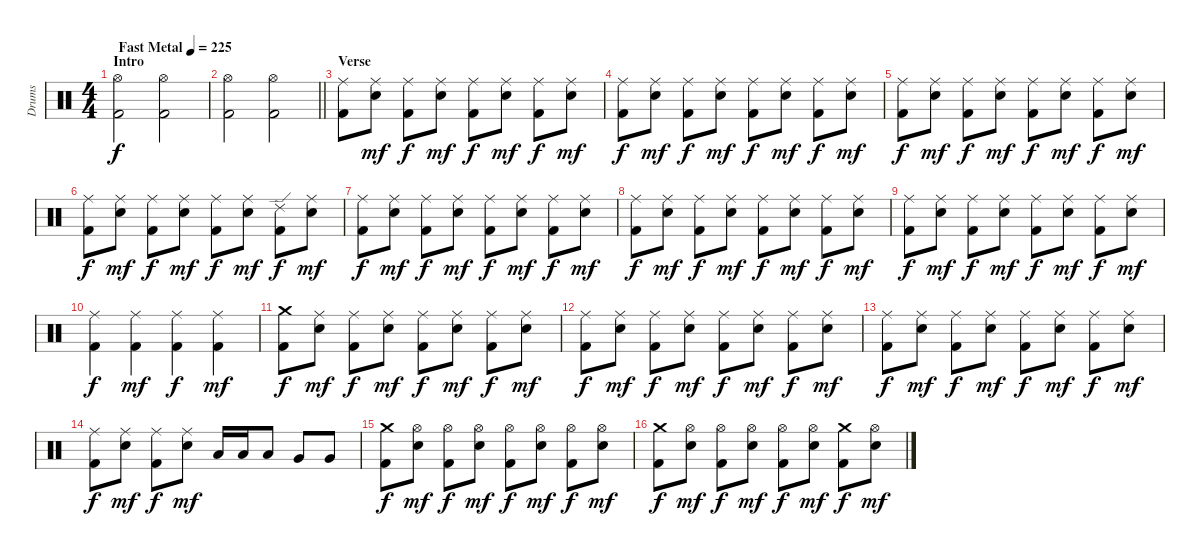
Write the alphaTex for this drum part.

\track ("Drums" "Drums") {instrument percussion}
\staff {score}
\articulation defaults
\ts (4 4)
\section ("" "Intro")
\tempo (225 "Fast Metal")
\clef neutral
\ks c
("Hi-Hat (open)" "Kick (hit) 2").2{dy f} ("Hi-Hat (open)" "Kick (hit) 2").2 |
\barLineRight lightlight
("Hi-Hat (open)" "Kick (hit) 2").2 ("Hi-Hat (open)" "Kick (hit) 2").2 |
\section ("" "Verse")
("Ride (middle)" "Kick (hit) 2").8 ("Ride (middle)" "Snare (hit) 2").8{dy mf} ("Ride (middle)" "Kick (hit) 2").8{dy f} ("Ride (middle)" "Snare (hit) 2").8{dy mf} ("Ride (middle)" "Kick (hit) 2").8{dy f} ("Ride (middle)" "Snare (hit) 2").8{dy mf} ("Ride (middle)" "Kick (hit) 2").8{dy f} ("Ride (middle)" "Snare (hit) 2").8{dy mf} |
("Ride (middle)" "Kick (hit) 2").8{dy f} ("Ride (middle)" "Snare (hit) 2").8{dy mf} ("Ride (middle)" "Kick (hit) 2").8{dy f} ("Ride (middle)" "Snare (hit) 2").8{dy mf} ("Ride (middle)" "Kick (hit) 2").8{dy f} ("Ride (middle)" "Snare (hit) 2").8{dy mf} ("Ride (middle)" "Kick (hit) 2").8{dy f} ("Ride (middle)" "Snare (hit) 2").8{dy mf} |
("Ride (middle)" "Kick (hit) 2").8{dy f} ("Ride (middle)" "Snare (hit) 2").8{dy mf} ("Ride (middle)" "Kick (hit) 2").8{dy f} ("Ride (middle)" "Snare (hit) 2").8{dy mf} ("Ride (middle)" "Kick (hit) 2").8{dy f} ("Ride (middle)" "Snare (hit) 2").8{dy mf} ("Ride (middle)" "Kick (hit) 2").8{dy f} ("Ride (middle)" "Snare (hit) 2").8{dy mf} |
("Ride (middle)" "Kick (hit) 2").8{dy f} ("Ride (middle)" "Snare (hit) 2").8{dy mf} ("Ride (middle)" "Kick (hit) 2").8{dy f} ("Ride (middle)" "Snare (hit) 2").8{dy mf} ("Ride (middle)" "Kick (hit) 2").8{dy f} ("Ride (middle)" "Snare (hit) 2").8{dy mf} ("Ride (edge) 2" "Kick (hit) 2").8{dy f} ("Ride (middle)" "Snare (hit) 2").8{dy mf} |
("Ride (middle)" "Kick (hit) 2").8{dy f} ("Ride (middle)" "Snare (hit) 2").8{dy mf} ("Ride (middle)" "Kick (hit) 2").8{dy f} ("Ride (middle)" "Snare (hit) 2").8{dy mf} ("Ride (middle)" "Kick (hit) 2").8{dy f} ("Ride (middle)" "Snare (hit) 2").8{dy mf} ("Ride (middle)" "Kick (hit) 2").8{dy f} ("Ride (middle)" "Snare (hit) 2").8{dy mf} |
("Ride (middle)" "Kick (hit) 2").8{dy f} ("Ride (middle)" "Snare (hit) 2").8{dy mf} ("Ride (middle)" "Kick (hit) 2").8{dy f} ("Ride (middle)" "Snare (hit) 2").8{dy mf} ("Ride (middle)" "Kick (hit) 2").8{dy f} ("Ride (middle)" "Snare (hit) 2").8{dy mf} ("Ride (middle)" "Kick (hit) 2").8{dy f} ("Ride (middle)" "Snare (hit) 2").8{dy mf} |
("Ride (middle)" "Kick (hit) 2").8{dy f} ("Ride (middle)" "Snare (hit) 2").8{dy mf} ("Ride (middle)" "Kick (hit) 2").8{dy f} ("Ride (middle)" "Snare (hit) 2").8{dy mf} ("Ride (middle)" "Kick (hit) 2").8{dy f} ("Ride (middle)" "Snare (hit) 2").8{dy mf} ("Ride (middle)" "Kick (hit) 2").8{dy f} ("Ride (middle)" "Snare (hit) 2").8{dy mf} |
("Ride (middle)" "Kick (hit) 2").4{dy f} ("Ride (middle)" "Kick (hit) 2").4{dy mf} ("Ride (middle)" "Kick (hit) 2").4{dy f} ("Ride (middle)" "Kick (hit) 2").4{dy mf} |
("Crash medium (hit)" "Kick (hit) 2").8{dy f} ("Ride (middle)" "Snare (hit) 2").8{dy mf} ("Ride (middle)" "Kick (hit) 2").8{dy f} ("Ride (middle)" "Snare (hit) 2").8{dy mf} ("Ride (middle)" "Kick (hit) 2").8{dy f} ("Ride (middle)" "Snare (hit) 2").8{dy mf} ("Ride (middle)" "Kick (hit) 2").8{dy f} ("Ride (middle)" "Snare (hit) 2").8{dy mf} |
("Ride (middle)" "Kick (hit) 2").8{dy f} ("Ride (middle)" "Snare (hit) 2").8{dy mf} ("Ride (middle)" "Kick (hit) 2").8{dy f} ("Ride (middle)" "Snare (hit) 2").8{dy mf} ("Ride (middle)" "Kick (hit) 2").8{dy f} ("Ride (middle)" "Snare (hit) 2").8{dy mf} ("Ride (middle)" "Kick (hit) 2").8{dy f} ("Ride (middle)" "Snare (hit) 2").8{dy mf} |
("Ride (middle)" "Kick (hit) 2").8{dy f} ("Ride (middle)" "Snare (hit) 2").8{dy mf} ("Ride (middle)" "Kick (hit) 2").8{dy f} ("Ride (middle)" "Snare (hit) 2").8{dy mf} ("Ride (middle)" "Kick (hit) 2").8{dy f} ("Ride (middle)" "Snare (hit) 2").8{dy mf} ("Ride (middle)" "Kick (hit) 2").8{dy f} ("Ride (middle)" "Snare (hit) 2").8{dy mf} |
("Ride (middle)" "Kick (hit) 2").8{dy f} ("Ride (middle)" "Snare (hit) 2").8{dy mf} ("Ride (middle)" "Kick (hit) 2").8{dy f} ("Ride (middle)" "Snare (hit) 2").8{dy mf} "Low Tom (hit)".16 "Low Tom (hit)".16 "Low Tom (hit)".8 "Very Low Tom (hit)".8 "Very Low Tom (hit)".8 |
("Crash medium (hit)" "Kick (hit) 2").8{dy f} ("Hi-Hat (open)" "Snare (hit) 2").8{dy mf} ("Hi-Hat (open)" "Kick (hit) 2").8{dy f} ("Hi-Hat (open)" "Snare (hit) 2").8{dy mf} ("Hi-Hat (open)" "Kick (hit) 2").8{dy f} ("Hi-Hat (open)" "Snare (hit) 2").8{dy mf} ("Hi-Hat (open)" "Kick (hit) 2").8{dy f} ("Hi-Hat (open)" "Snare (hit) 2").8{dy mf} |
("Crash medium (hit)" "Kick (hit) 2").8{dy f} ("Hi-Hat (open)" "Snare (hit) 2").8{dy mf} ("Hi-Hat (open)" "Kick (hit) 2").8{dy f} ("Hi-Hat (open)" "Snare (hit) 2").8{dy mf} ("Hi-Hat (open)" "Kick (hit) 2").8{dy f} ("Hi-Hat (open)" "Snare (hit) 2").8{dy mf} ("Crash medium (hit)" "Kick (hit) 2").8{dy f} ("Hi-Hat (open)" "Snare (hit) 2").8{dy mf}
